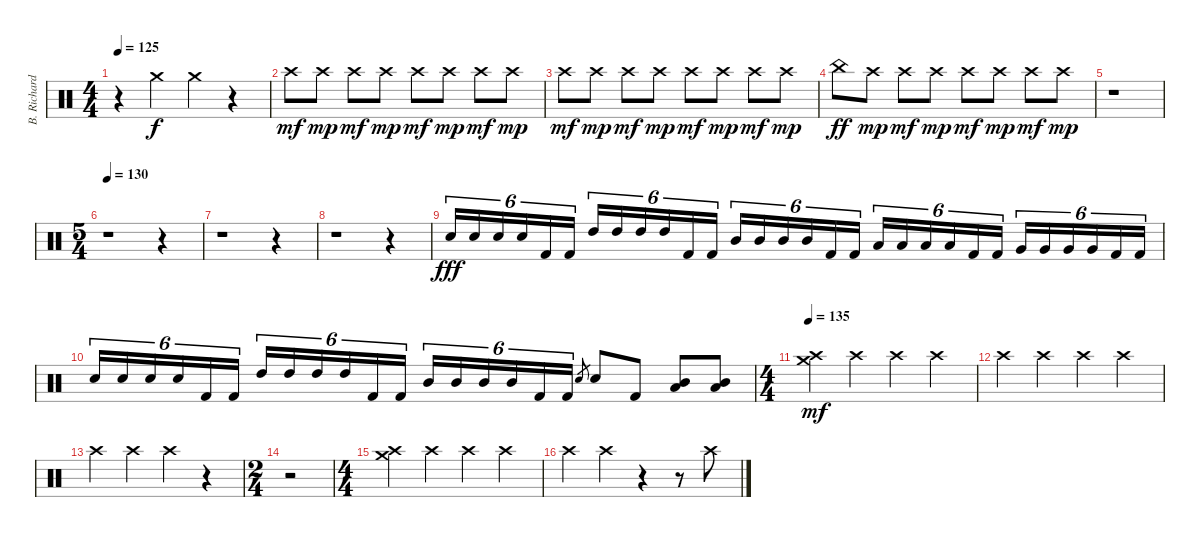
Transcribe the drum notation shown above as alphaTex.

\track ("B. Richardson Drums" "B. Richard") {instrument percussion}
\staff {score}
\articulation defaults
\ts (4 4)
\tempo 125
\clef neutral
\ks c
r.4{dy ff} "Crash medium (hit)".4{dy f} "Crash medium (hit)".4 r.4 |
"Crash high (hit)".8{dy mf} "Crash high (hit)".8{dy mp} "Crash high (hit)".8{dy mf} "Crash high (hit)".8{dy mp} "Crash high (hit)".8{dy mf} "Crash high (hit)".8{dy mp} "Crash high (hit)".8{dy mf} "Crash high (hit)".8{dy mp} |
"Crash high (hit)".8{dy mf} "Crash high (hit)".8{dy mp} "Crash high (hit)".8{dy mf} "Crash high (hit)".8{dy mp} "Crash high (hit)".8{dy mf} "Crash high (hit)".8{dy mp} "Crash high (hit)".8{dy mf} "Crash high (hit)".8{dy mp} |
"China (hit)".8{dy ff} "Crash high (hit)".8{dy mp} "Crash high (hit)".8{dy mf} "Crash high (hit)".8{dy mp} "Crash high (hit)".8{dy mf} "Crash high (hit)".8{dy mp} "Crash high (hit)".8{dy mf} "Crash high (hit)".8{dy mp} |
r.1 |
\ts (5 4)
\tempo 130
r.1 r.4 |
r.1 r.4 |
r.1 r.4 |
"Electric Snare (hit)".16{tu (6 4) dy fff} "Electric Snare (hit)".16{tu (6 4)} "Electric Snare (hit)".16{tu (6 4)} "Electric Snare (hit)".16{tu (6 4)} "Kick (hit) 2".16{tu (6 4)} "Kick (hit) 2".16{tu (6 4)} "High Tom (hit)".16{tu (6 4)} "High Tom (hit)".16{tu (6 4)} "High Tom (hit)".16{tu (6 4)} "High Tom (hit)".16{tu (6 4)} "Kick (hit) 2".16{tu (6 4)} "Kick (hit) 2".16{tu (6 4)} "Mid Tom (hit)".16{tu (6 4)} "Mid Tom (hit)".16{tu (6 4)} "Mid Tom (hit)".16{tu (6 4)} "Mid Tom (hit)".16{tu (6 4)} "Kick (hit) 2".16{tu (6 4)} "Kick (hit) 2".16{tu (6 4)} "Low Tom (hit)".16{tu (6 4)} "Low Tom (hit)".16{tu (6 4)} "Low Tom (hit)".16{tu (6 4)} "Low Tom (hit)".16{tu (6 4)} "Kick (hit) 2".16{tu (6 4)} "Kick (hit) 2".16{tu (6 4)} "Very Low Tom (hit)".16{tu (6 4)} "Very Low Tom (hit)".16{tu (6 4)} "Very Low Tom (hit)".16{tu (6 4)} "Very Low Tom (hit)".16{tu (6 4)} "Kick (hit) 2".16{tu (6 4)} "Kick (hit) 2".16{tu (6 4)} |
"Electric Snare (hit)".16{tu (6 4)} "Electric Snare (hit)".16{tu (6 4)} "Electric Snare (hit)".16{tu (6 4)} "Electric Snare (hit)".16{tu (6 4)} "Kick (hit) 2".16{tu (6 4)} "Kick (hit) 2".16{tu (6 4)} "High Tom (hit)".16{tu (6 4)} "High Tom (hit)".16{tu (6 4)} "High Tom (hit)".16{tu (6 4)} "High Tom (hit)".16{tu (6 4)} "Kick (hit) 2".16{tu (6 4)} "Kick (hit) 2".16{tu (6 4)} "Mid Tom (hit)".16{tu (6 4)} "Mid Tom (hit)".16{tu (6 4)} "Mid Tom (hit)".16{tu (6 4)} "Mid Tom (hit)".16{tu (6 4)} "Kick (hit) 2".16{tu (6 4)} "Kick (hit) 2".16{tu (6 4)} "Electric Snare (hit)".8{gr} "Electric Snare (hit)".8 "Kick (hit) 2".8 ("Mid Tom (hit)" "Low Tom (hit)").8 ("Mid Tom (hit)" "Low Tom (hit)").8 |
\ts (4 4)
\tempo 135
("Crash high (hit)" "Crash medium (hit)").4{dy mf} "Crash high (hit)".4 "Crash high (hit)".4 "Crash high (hit)".4 |
"Crash high (hit)".4 "Crash high (hit)".4 "Crash high (hit)".4 "Crash high (hit)".4 |
"Crash high (hit)".4 "Crash high (hit)".4 "Crash high (hit)".4 r.4 |
\ts (2 4)
r.2 |
\ts (4 4)
("Crash high (hit)" "Crash medium (hit)").4 "Crash high (hit)".4 "Crash high (hit)".4 "Crash high (hit)".4 |
"Crash high (hit)".4 "Crash high (hit)".4 r.4 r.8 "Crash high (hit)".8
